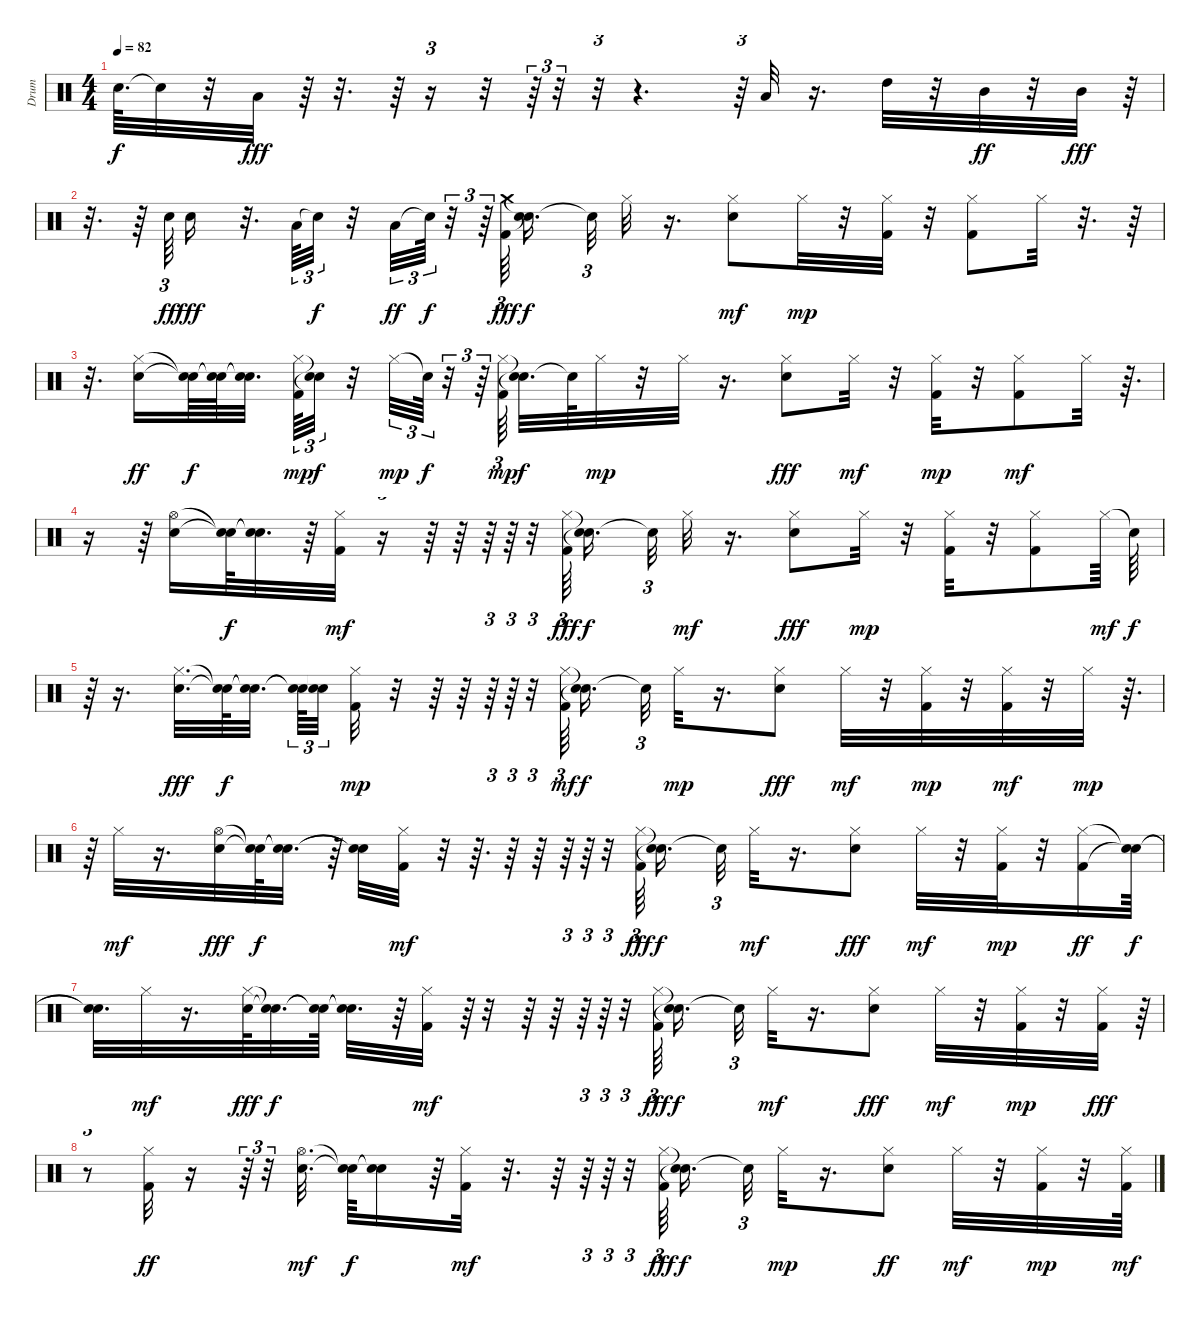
\track ("Drum" "Drum") {instrument percussion}
\staff {score}
\articulation defaults
\ts (4 4)
\tempo 82
\clef neutral
\ks c "Snare (hit)"{t}.64{d dy f} "Snare (hit)"{t}.32
r.32 "Low Tom (hit)".32{dy fff} r.64 r.32{d} r.64 r.16{tu (3 2)} r.32 r.64{tu (3 2)} r.32{tu (3 2)} r.32{tu (3 2)} r.4{d} r.64{tu (3 2)} "Low Tom (hit)".32 r.16{d} "High Tom (hit)".32 r.32 "Mid Tom (hit)".32{dy ff} r.32 "Mid Tom (hit)".32{dy fff} r.64 |
r.32{d} r.64 "Snare (hit) 2".64{tu (3 2) dy ff} "Electric Snare (hit)".16{dy fff} r.32{d} "Low Tom (hit)".64{tu (3 2)} "Snare (hit)"{t}.32{tu (3 2) dy f} r.32 "Low Floor Tom (hit)".32{tu (3 2) dy ff} "Snare (hit)"{t}.64{tu (3 2) dy f} r.32{tu (3 2)} r.64{tu (3 2)} ("Kick (hit) 2" "Crash medium (hit)").64{tu (3 2) dy fff beam splitsecondary} ("Snare (hit)"{t} "Snare (hit)"{t}).16{d dy f beam splitsecondary} "Snare (hit)"{t}.32{tu (3 2)} "Hi-Hat (closed)".32 r.16{d} ("Electric Snare (hit)" "Hi-Hat (closed)").8{dy mf} "Hi-Hat (closed)".32{dy mp} r.32 ("Kick (hit) 2" "Hi-Hat (closed)").32 r.32 ("Kick (hit) 2" "Hi-Hat (closed)").8 "Hi-Hat (closed)".32 r.32{d} r.64 |
r.32{d} ("Electric Snare (hit)" "Hi-Hat (closed)").16{dy ff} ("Snare (hit)"{t} "Snare (hit)"{t}).64{dy f} ("Snare (hit)"{t} "Snare (hit)"{t}).64 ("Snare (hit)"{t} "Snare (hit)"{t}).32{d beam splitsecondary} ("Kick (hit) 2" "Hi-Hat (closed)").64{tu (3 2) dy mp} ("Snare (hit)"{t} "Snare (hit)"{t}).32{tu (3 2) dy f} r.32 "Hi-Hat (closed)".32{tu (3 2) dy mp} "Snare (hit)"{t}.64{tu (3 2) dy f} r.32{tu (3 2)} r.64{tu (3 2)} ("Kick (hit) 2" "Hi-Hat (closed)").64{tu (3 2) dy mp beam splitsecondary} ("Snare (hit)"{t} "Snare (hit)"{t}).32{d dy f} "Snare (hit)"{t}.64 "Hi-Hat (closed)".32{dy mp} r.32 "Hi-Hat (closed)".32 r.16{d} ("Electric Snare (hit)" "Hi-Hat (closed)").8{dy fff} "Hi-Hat (closed)".32{dy mf} r.32 ("Kick (hit) 2" "Hi-Hat (closed)").32{dy mp} r.32 ("Kick (hit) 2" "Hi-Hat (closed)").8{dy mf} "Hi-Hat (closed)".32 r.64{d} |
r.16 r.64 ("Electric Snare (hit)" "Hi-Hat (open)").16 ("Snare (hit)"{t} "Snare (hit)"{t}).64{dy f} ("Snare (hit)"{t} "Snare (hit)"{t}).32{d} r.64 ("Kick (hit) 2" "Hi-Hat (closed)").32{dy mf} r.16{tu (3 2)} r.64 r.64 r.64{tu (3 2)} r.64{tu (3 2)} r.32{tu (3 2)} ("Kick (hit) 2" "Hi-Hat (closed)").64{tu (3 2) dy fff beam splitsecondary} ("Snare (hit)"{t} "Snare (hit)"{t}).16{d dy f beam splitsecondary} "Snare (hit)"{t}.32{tu (3 2)} "Hi-Hat (closed)".32{dy mf} r.16{d} ("Electric Snare (hit)" "Hi-Hat (closed)").8{dy fff} "Hi-Hat (closed)".32{dy mp} r.32 ("Kick (hit) 2" "Hi-Hat (closed)").32 r.32 ("Kick (hit) 2" "Hi-Hat (closed)").8 "Hi-Hat (closed)".64{dy mf} "Snare (hit)"{t}.64{dy f} |
r.64 r.16{d} ("Electric Snare (hit)" "Hi-Hat (closed)").32{d dy fff} ("Snare (hit)"{t} "Snare (hit)"{t}).64{dy f} ("Snare (hit)"{t} "Snare (hit)"{t}).32{d beam splitsecondary} ("Snare (hit)"{t} "Snare (hit)"{t}).64{tu (3 2)} ("Snare (hit)"{t} "Snare (hit)"{t}).32{tu (3 2)} ("Kick (hit) 2" "Hi-Hat (closed)").32{dy mp} r.32 r.64 r.64 r.64{tu (3 2)} r.64{tu (3 2)} r.32{tu (3 2)} ("Kick (hit) 2" "Hi-Hat (closed)").64{tu (3 2) dy mf beam splitsecondary} ("Snare (hit)"{t} "Snare (hit)"{t}).16{d dy f} "Snare (hit)"{t}.32{tu (3 2)} "Hi-Hat (closed)".32{dy mp} r.16{d} ("Electric Snare (hit)" "Hi-Hat (closed)").8{dy fff} "Hi-Hat (closed)".32{dy mf} r.32 ("Kick (hit) 2" "Hi-Hat (closed)").32{dy mp} r.32 ("Kick (hit) 2" "Hi-Hat (closed)").32{dy mf} r.32 "Hi-Hat (closed)".32{dy mp} r.64{d} |
r.64 "Hi-Hat (closed)".32{dy mf} r.16{d} ("Electric Snare (hit)" "Hi-Hat (open)").32{dy fff} ("Snare (hit)"{t} "Snare (hit)"{t}).64{dy f} ("Snare (hit)"{t} "Snare (hit)"{t}).32{d} r.64 ("Snare (hit)"{t} "Snare (hit)"{t}).32 ("Kick (hit) 2" "Hi-Hat (closed)").32{dy mf} r.32{tu (3 2)} r.64{d} r.64 r.64 r.64{tu (3 2)} r.64{tu (3 2)} r.32{tu (3 2)} ("Kick (hit) 2" "Hi-Hat (closed)").64{tu (3 2) dy fff} ("Snare (hit)"{t} "Snare (hit)"{t}).16{d dy f} "Snare (hit)"{t}.32{tu (3 2)} "Hi-Hat (closed)".32{dy mf} r.16{d} ("Electric Snare (hit)" "Hi-Hat (closed)").8{dy fff} "Hi-Hat (closed)".32{dy mf} r.32 ("Kick (hit) 2" "Hi-Hat (closed)").32{dy mp} r.32 ("Kick (hit) 2" "Hi-Hat (closed)").16{dy ff} ("Snare (hit)"{t} "Snare (hit)"{t}).64{dy f} |
("Snare (hit)"{t} "Snare (hit)"{t}).32{d} "Hi-Hat (closed)".32{dy mf} r.16{d} ("Electric Snare (hit)" "Hi-Hat (closed)").64{dy fff} ("Snare (hit)"{t} "Snare (hit)"{t}).32{d dy f} ("Snare (hit)"{t} "Snare (hit)"{t}).64 ("Snare (hit)"{t} "Snare (hit)"{t}).32{d} r.64 ("Kick (hit) 2" "Hi-Hat (closed)").32{dy mf} r.64{tu (3 2)} r.32 r.64 r.64 r.64{tu (3 2)} r.64{tu (3 2)} r.32{tu (3 2)} ("Kick (hit) 2" "Hi-Hat (closed)").64{tu (3 2) dy fff} ("Snare (hit)"{t} "Snare (hit)"{t}).16{d dy f} "Snare (hit)"{t}.32{tu (3 2)} "Hi-Hat (closed)".32{dy mf} r.16{d} ("Electric Snare (hit)" "Hi-Hat (closed)").8{dy fff} "Hi-Hat (closed)".32{dy mf} r.32 ("Kick (hit) 2" "Hi-Hat (closed)").32{dy mp} r.32 ("Kick (hit) 2" "Hi-Hat (closed)").32{dy fff} r.64{tu (3 2)} |
r.8{tu (3 2)} ("Kick (hit) 2" "Hi-Hat (closed)").32{dy ff} r.16 r.64{tu (3 2)} r.32{tu (3 2)} ("Electric Snare (hit)" "Hi-Hat (open)").32{d dy mf} ("Snare (hit)"{t} "Snare (hit)"{t}).64{dy f} ("Snare (hit)"{t} "Snare (hit)"{t}).16 r.64 ("Kick (hit) 2" "Hi-Hat (closed)").32{dy mf} r.32{d} r.64 r.64{tu (3 2)} r.64{tu (3 2)} r.32{tu (3 2)} ("Kick (hit) 2" "Hi-Hat (closed)").64{tu (3 2) dy fff} ("Snare (hit)"{t} "Snare (hit)"{t}).16{d dy f} "Snare (hit)"{t}.32{tu (3 2)} "Hi-Hat (closed)".32{dy mp} r.16{d} ("Electric Snare (hit)" "Hi-Hat (closed)").8{dy ff} "Hi-Hat (closed)".32{dy mf} r.32 ("Kick (hit) 2" "Hi-Hat (closed)").32{dy mp} r.32 ("Kick (hit) 2" "Hi-Hat (closed)").64{dy mf}
